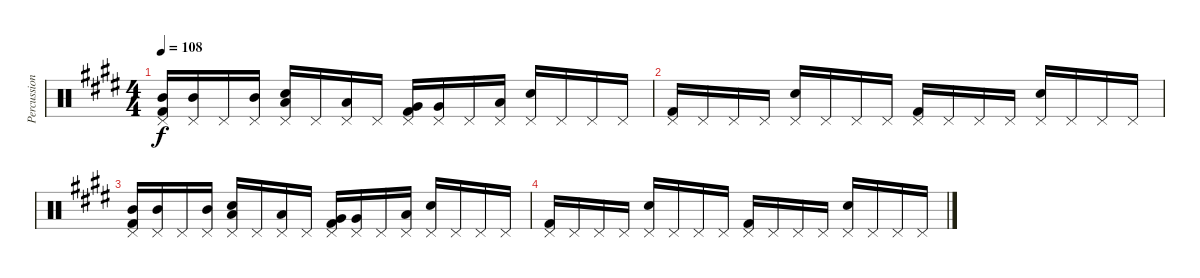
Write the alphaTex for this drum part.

\track ("Percussion" "Percussion") {instrument percussion}
\staff {score}
\articulation defaults
\ts (4 4)
\tempo 108
\clef neutral
\ks e
("Pedal Hi-Hat (hit)" "Mid Tom (hit)" "Kick (hit) 2").16{dy f} ("Pedal Hi-Hat (hit)" "Mid Tom (hit)").16 "Pedal Hi-Hat (hit)".16 ("Pedal Hi-Hat (hit)" "Mid Tom (hit)").16 ("Pedal Hi-Hat (hit)" "Low Tom (hit)" "Snare (hit) 2").16 "Pedal Hi-Hat (hit)".16 ("Pedal Hi-Hat (hit)" "Low Tom (hit)").16 "Pedal Hi-Hat (hit)".16 ("Pedal Hi-Hat (hit)" "Very Low Tom (hit)" "Kick (hit) 2").16 ("Pedal Hi-Hat (hit)" "Very Low Tom (hit)").16 "Pedal Hi-Hat (hit)".16 ("Pedal Hi-Hat (hit)" "Low Floor Tom (hit)").16 ("Pedal Hi-Hat (hit)" "Snare (hit) 2").16 "Pedal Hi-Hat (hit)".16 "Pedal Hi-Hat (hit)".16 "Pedal Hi-Hat (hit)".16 |
("Pedal Hi-Hat (hit)" "Kick (hit) 2").16 "Pedal Hi-Hat (hit)".16 "Pedal Hi-Hat (hit)".16 "Pedal Hi-Hat (hit)".16 ("Pedal Hi-Hat (hit)" "Snare (hit) 2").16 "Pedal Hi-Hat (hit)".16 "Pedal Hi-Hat (hit)".16 "Pedal Hi-Hat (hit)".16 ("Pedal Hi-Hat (hit)" "Kick (hit) 2").16 "Pedal Hi-Hat (hit)".16 "Pedal Hi-Hat (hit)".16 "Pedal Hi-Hat (hit)".16 ("Pedal Hi-Hat (hit)" "Snare (hit) 2").16 "Pedal Hi-Hat (hit)".16 "Pedal Hi-Hat (hit)".16 "Pedal Hi-Hat (hit)".16 |
("Pedal Hi-Hat (hit)" "Mid Tom (hit)" "Kick (hit) 2").16 ("Pedal Hi-Hat (hit)" "Mid Tom (hit)").16 "Pedal Hi-Hat (hit)".16 ("Pedal Hi-Hat (hit)" "Mid Tom (hit)").16 ("Pedal Hi-Hat (hit)" "Low Tom (hit)" "Snare (hit) 2").16 "Pedal Hi-Hat (hit)".16 ("Pedal Hi-Hat (hit)" "Low Tom (hit)").16 "Pedal Hi-Hat (hit)".16 ("Pedal Hi-Hat (hit)" "Very Low Tom (hit)" "Kick (hit) 2").16 ("Pedal Hi-Hat (hit)" "Very Low Tom (hit)").16 "Pedal Hi-Hat (hit)".16 ("Pedal Hi-Hat (hit)" "Low Floor Tom (hit)").16 ("Pedal Hi-Hat (hit)" "Snare (hit) 2").16 "Pedal Hi-Hat (hit)".16 "Pedal Hi-Hat (hit)".16 "Pedal Hi-Hat (hit)".16 |
("Pedal Hi-Hat (hit)" "Kick (hit) 2").16 "Pedal Hi-Hat (hit)".16 "Pedal Hi-Hat (hit)".16 "Pedal Hi-Hat (hit)".16 ("Pedal Hi-Hat (hit)" "Snare (hit) 2").16 "Pedal Hi-Hat (hit)".16 "Pedal Hi-Hat (hit)".16 "Pedal Hi-Hat (hit)".16 ("Pedal Hi-Hat (hit)" "Kick (hit) 2").16 "Pedal Hi-Hat (hit)".16 "Pedal Hi-Hat (hit)".16 "Pedal Hi-Hat (hit)".16 ("Pedal Hi-Hat (hit)" "Snare (hit) 2").16 "Pedal Hi-Hat (hit)".16 "Pedal Hi-Hat (hit)".16 "Pedal Hi-Hat (hit)".16
